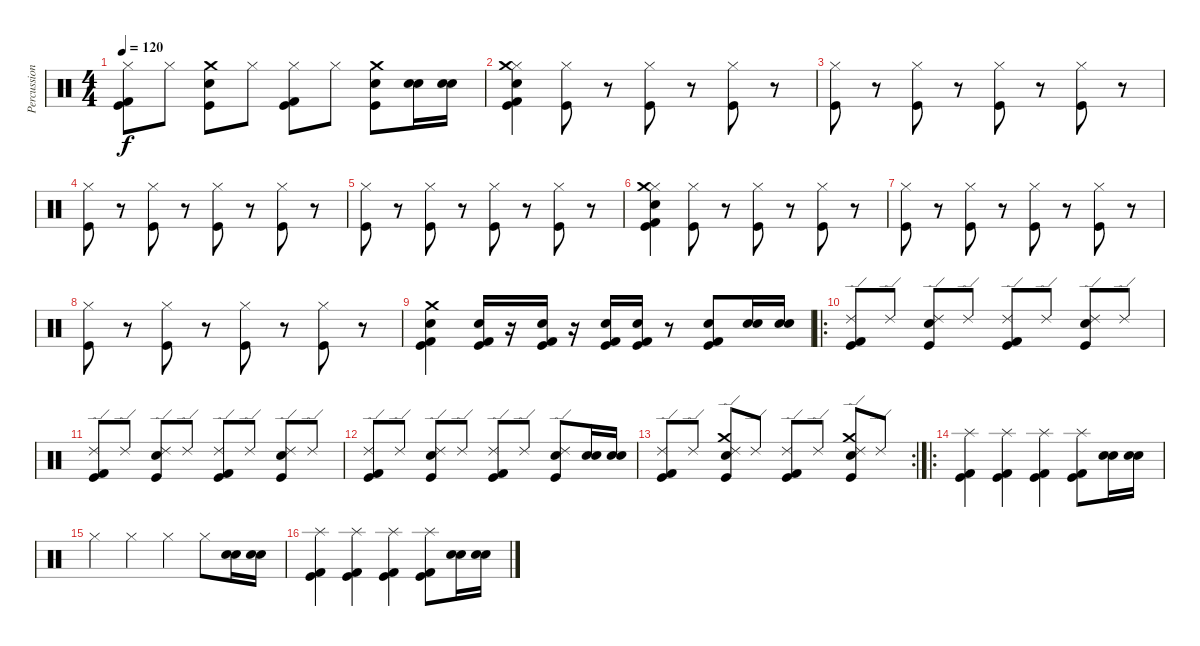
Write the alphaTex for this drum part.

\track ("Percussion" "Percussion") {instrument percussion}
\staff {score}
\articulation defaults
\ts (4 4)
\tempo 120
\clef neutral
\ks c
("Hi-Hat (closed)" "Kick (hit)" "Kick (hit) 2").8{dy f} "Hi-Hat (closed)".8 ("Kick (hit)" "Snare (hit) 2" "Crash medium (hit)").8 "Hi-Hat (closed)".8 ("Hi-Hat (closed)" "Kick (hit)" "Kick (hit) 2").8 "Hi-Hat (closed)".8 ("Kick (hit)" "Snare (hit) 2" "Crash medium (hit)").8 ("Snare (hit) 2" "Electric Snare (hit)").16 ("Snare (hit) 2" "Electric Snare (hit)").16 |
("Hi-Hat (closed)" "Kick (hit)" "Kick (hit) 2" "Snare (hit) 2" "Crash medium (hit)").4 ("Hi-Hat (closed)" "Kick (hit)").8 r.8 ("Hi-Hat (closed)" "Kick (hit)").8 r.8 ("Hi-Hat (closed)" "Kick (hit)").8 r.8 |
("Hi-Hat (closed)" "Kick (hit)").8 r.8 ("Hi-Hat (closed)" "Kick (hit)").8 r.8 ("Hi-Hat (closed)" "Kick (hit)").8 r.8 ("Hi-Hat (closed)" "Kick (hit)").8 r.8 |
("Hi-Hat (closed)" "Kick (hit)").8 r.8 ("Hi-Hat (closed)" "Kick (hit)").8 r.8 ("Hi-Hat (closed)" "Kick (hit)").8 r.8 ("Hi-Hat (closed)" "Kick (hit)").8 r.8 |
("Hi-Hat (closed)" "Kick (hit)").8 r.8 ("Hi-Hat (closed)" "Kick (hit)").8 r.8 ("Hi-Hat (closed)" "Kick (hit)").8 r.8 ("Hi-Hat (closed)" "Kick (hit)").8 r.8 |
("Hi-Hat (closed)" "Kick (hit)" "Kick (hit) 2" "Snare (hit) 2" "Crash medium (hit)").4 ("Hi-Hat (closed)" "Kick (hit)").8 r.8 ("Hi-Hat (closed)" "Kick (hit)").8 r.8 ("Hi-Hat (closed)" "Kick (hit)").8 r.8 |
("Hi-Hat (closed)" "Kick (hit)").8 r.8 ("Hi-Hat (closed)" "Kick (hit)").8 r.8 ("Hi-Hat (closed)" "Kick (hit)").8 r.8 ("Hi-Hat (closed)" "Kick (hit)").8 r.8 |
("Hi-Hat (closed)" "Kick (hit)").8 r.8 ("Hi-Hat (closed)" "Kick (hit)").8 r.8 ("Hi-Hat (closed)" "Kick (hit)").8 r.8 ("Hi-Hat (closed)" "Kick (hit)").8 r.8 |
("Kick (hit)" "Kick (hit) 2" "Snare (hit) 2" "Crash medium (hit)").4 ("Kick (hit)" "Kick (hit) 2" "Electric Snare (hit)").16 r.16 ("Kick (hit)" "Kick (hit) 2" "Electric Snare (hit)").16 r.16 ("Kick (hit)" "Kick (hit) 2" "Electric Snare (hit)").16 ("Kick (hit)" "Kick (hit) 2" "Electric Snare (hit)").16 r.8 ("Kick (hit)" "Kick (hit) 2" "Snare (hit) 2").8 ("Snare (hit) 2" "Electric Snare (hit)").16 ("Snare (hit) 2" "Electric Snare (hit)").16 |
\ro
("Ride (edge) 2" "Kick (hit)" "Kick (hit) 2").8 "Ride (edge) 2".8 ("Ride (edge) 2" "Kick (hit)" "Snare (hit) 2").8 "Ride (edge) 2".8 ("Ride (edge) 2" "Kick (hit)" "Kick (hit) 2").8 "Ride (edge) 2".8 ("Ride (edge) 2" "Kick (hit)" "Snare (hit) 2").8 "Ride (edge) 2".8 |
("Ride (edge) 2" "Kick (hit)" "Kick (hit) 2").8 "Ride (edge) 2".8 ("Ride (edge) 2" "Kick (hit)" "Snare (hit) 2").8 "Ride (edge) 2".8 ("Ride (edge) 2" "Kick (hit)" "Kick (hit) 2").8 "Ride (edge) 2".8 ("Ride (edge) 2" "Kick (hit)" "Snare (hit) 2").8 "Ride (edge) 2".8 |
("Ride (edge) 2" "Kick (hit)" "Kick (hit) 2").8 "Ride (edge) 2".8 ("Ride (edge) 2" "Kick (hit)" "Snare (hit) 2").8 "Ride (edge) 2".8 ("Ride (edge) 2" "Kick (hit)" "Kick (hit) 2").8 "Ride (edge) 2".8 ("Ride (edge) 2" "Kick (hit)" "Snare (hit) 2").8 ("Snare (hit) 2" "Electric Snare (hit)").16 ("Snare (hit) 2" "Electric Snare (hit)").16 |
\rc 2
("Ride (edge) 2" "Kick (hit)" "Kick (hit) 2").8 "Ride (edge) 2".8 ("Ride (edge) 2" "Kick (hit)" "Snare (hit) 2" "Crash medium (hit)").8 "Ride (edge) 2".8 ("Ride (edge) 2" "Kick (hit)" "Kick (hit) 2").8 "Ride (edge) 2".8 ("Ride (edge) 2" "Kick (hit)" "Snare (hit) 2" "Crash medium (hit)").8 "Ride (edge) 2".8 |
\ro
("Splash (hit)" "Kick (hit)" "Kick (hit) 2").4 ("Splash (hit)" "Kick (hit)" "Kick (hit) 2").4 ("Splash (hit)" "Kick (hit)" "Kick (hit) 2").4 ("Splash (hit)" "Kick (hit)" "Kick (hit) 2").8 ("Snare (hit) 2" "Electric Snare (hit)").16 ("Snare (hit) 2" "Electric Snare (hit)").16 |
"Hi-Hat (closed)".4 "Hi-Hat (closed)".4 "Hi-Hat (closed)".4 "Hi-Hat (closed)".8 ("Snare (hit) 2" "Electric Snare (hit)").16 ("Snare (hit) 2" "Electric Snare (hit)").16 |
("Splash (hit)" "Kick (hit)" "Kick (hit) 2").4 ("Splash (hit)" "Kick (hit)" "Kick (hit) 2").4 ("Splash (hit)" "Kick (hit)" "Kick (hit) 2").4 ("Splash (hit)" "Kick (hit)" "Kick (hit) 2").8 ("Snare (hit) 2" "Electric Snare (hit)").16 ("Snare (hit) 2" "Electric Snare (hit)").16
